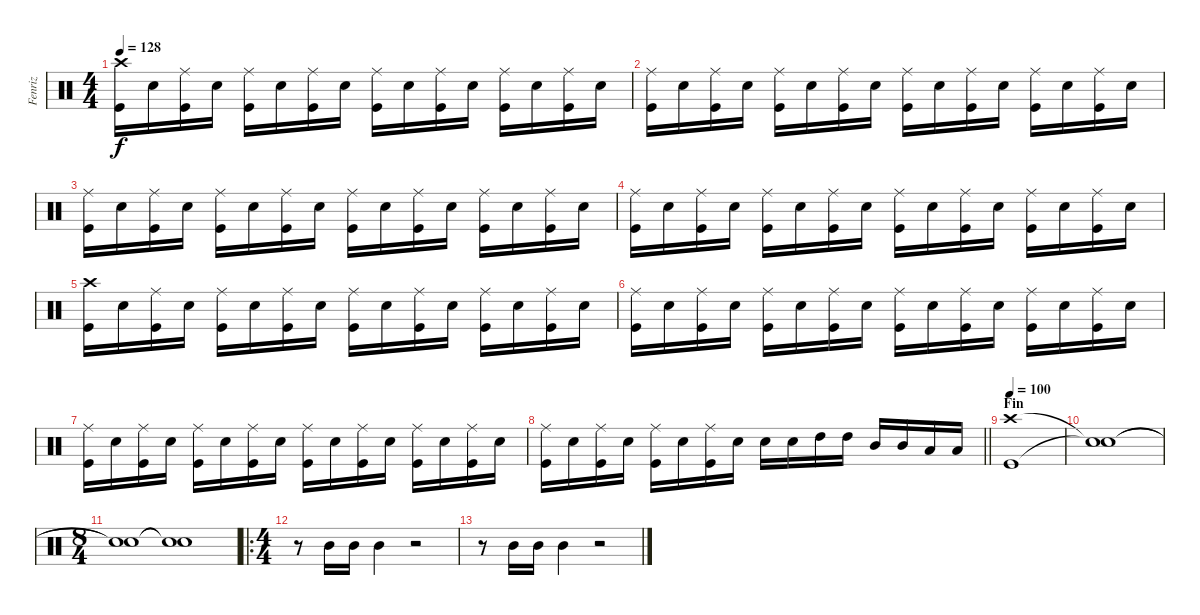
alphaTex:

\track ("Fenriz" "Fenriz") {instrument percussion}
\staff {score}
\articulation defaults
\ts (4 4)
\tempo 128
\clef neutral
\ks c
("Crash high (hit)" "Kick (hit)").16{dy f} "Snare (hit) 2".16 ("Ride (middle)" "Kick (hit)").16 "Snare (hit) 2".16 ("Ride (middle)" "Kick (hit)").16 "Snare (hit) 2".16 ("Ride (middle)" "Kick (hit)").16 "Snare (hit) 2".16 ("Ride (middle)" "Kick (hit)").16 "Snare (hit) 2".16 ("Ride (middle)" "Kick (hit)").16 "Snare (hit) 2".16 ("Ride (middle)" "Kick (hit)").16 "Snare (hit) 2".16 ("Ride (middle)" "Kick (hit)").16 "Snare (hit) 2".16 |
("Ride (middle)" "Kick (hit)").16 "Snare (hit) 2".16 ("Ride (middle)" "Kick (hit)").16 "Snare (hit) 2".16 ("Ride (middle)" "Kick (hit)").16 "Snare (hit) 2".16 ("Ride (middle)" "Kick (hit)").16 "Snare (hit) 2".16 ("Ride (middle)" "Kick (hit)").16 "Snare (hit) 2".16 ("Ride (middle)" "Kick (hit)").16 "Snare (hit) 2".16 ("Ride (middle)" "Kick (hit)").16 "Snare (hit) 2".16 ("Ride (middle)" "Kick (hit)").16 "Snare (hit) 2".16 |
("Ride (middle)" "Kick (hit)").16 "Snare (hit) 2".16 ("Ride (middle)" "Kick (hit)").16 "Snare (hit) 2".16 ("Ride (middle)" "Kick (hit)").16 "Snare (hit) 2".16 ("Ride (middle)" "Kick (hit)").16 "Snare (hit) 2".16 ("Ride (middle)" "Kick (hit)").16 "Snare (hit) 2".16 ("Ride (middle)" "Kick (hit)").16 "Snare (hit) 2".16 ("Ride (middle)" "Kick (hit)").16 "Snare (hit) 2".16 ("Ride (middle)" "Kick (hit)").16 "Snare (hit) 2".16 |
("Ride (middle)" "Kick (hit)").16 "Snare (hit) 2".16 ("Ride (middle)" "Kick (hit)").16 "Snare (hit) 2".16 ("Ride (middle)" "Kick (hit)").16 "Snare (hit) 2".16 ("Ride (middle)" "Kick (hit)").16 "Snare (hit) 2".16 ("Ride (middle)" "Kick (hit)").16 "Snare (hit) 2".16 ("Ride (middle)" "Kick (hit)").16 "Snare (hit) 2".16 ("Ride (middle)" "Kick (hit)").16 "Snare (hit) 2".16 ("Ride (middle)" "Kick (hit)").16 "Snare (hit) 2".16 |
("Crash high (hit)" "Kick (hit)").16 "Snare (hit) 2".16 ("Ride (middle)" "Kick (hit)").16 "Snare (hit) 2".16 ("Ride (middle)" "Kick (hit)").16 "Snare (hit) 2".16 ("Ride (middle)" "Kick (hit)").16 "Snare (hit) 2".16 ("Ride (middle)" "Kick (hit)").16 "Snare (hit) 2".16 ("Ride (middle)" "Kick (hit)").16 "Snare (hit) 2".16 ("Ride (middle)" "Kick (hit)").16 "Snare (hit) 2".16 ("Ride (middle)" "Kick (hit)").16 "Snare (hit) 2".16 |
("Ride (middle)" "Kick (hit)").16 "Snare (hit) 2".16 ("Ride (middle)" "Kick (hit)").16 "Snare (hit) 2".16 ("Ride (middle)" "Kick (hit)").16 "Snare (hit) 2".16 ("Ride (middle)" "Kick (hit)").16 "Snare (hit) 2".16 ("Ride (middle)" "Kick (hit)").16 "Snare (hit) 2".16 ("Ride (middle)" "Kick (hit)").16 "Snare (hit) 2".16 ("Ride (middle)" "Kick (hit)").16 "Snare (hit) 2".16 ("Ride (middle)" "Kick (hit)").16 "Snare (hit) 2".16 |
("Ride (middle)" "Kick (hit)").16 "Snare (hit) 2".16 ("Ride (middle)" "Kick (hit)").16 "Snare (hit) 2".16 ("Ride (middle)" "Kick (hit)").16 "Snare (hit) 2".16 ("Ride (middle)" "Kick (hit)").16 "Snare (hit) 2".16 ("Ride (middle)" "Kick (hit)").16 "Snare (hit) 2".16 ("Ride (middle)" "Kick (hit)").16 "Snare (hit) 2".16 ("Ride (middle)" "Kick (hit)").16 "Snare (hit) 2".16 ("Ride (middle)" "Kick (hit)").16 "Snare (hit) 2".16 |
\barLineRight lightlight
("Ride (middle)" "Kick (hit)").16 "Snare (hit) 2".16 ("Ride (middle)" "Kick (hit)").16 "Snare (hit) 2".16 ("Ride (middle)" "Kick (hit)").16 "Snare (hit) 2".16 ("Ride (middle)" "Kick (hit)").16 "Electric Snare (hit)".16 "Snare (hit) 2".16 "Snare (hit) 2".16 "High Tom (hit)".16 "High Tom (hit)".16 "Mid Tom (hit)".16 "Mid Tom (hit)".16 "Low Tom (hit)".16 "Low Tom (hit)".16 |
\section ("" "Fin")
\tempo 100
("Crash high (hit)" "Kick (hit)").1 |
("Snare (hit)"{t} "Snare (hit)"{t}).1 |
\ts (8 4)
("Snare (hit)"{t} "Snare (hit)"{t}).1 ("Snare (hit)"{t} "Snare (hit)"{t}).1 |
\ro
\ts (4 4)
r.8 "Mid Tom (hit)".16 "Mid Tom (hit)".16 "Mid Tom (hit)".4 r.2 |
r.8 "Mid Tom (hit)".16 "Mid Tom (hit)".16 "Mid Tom (hit)".4 r.2
